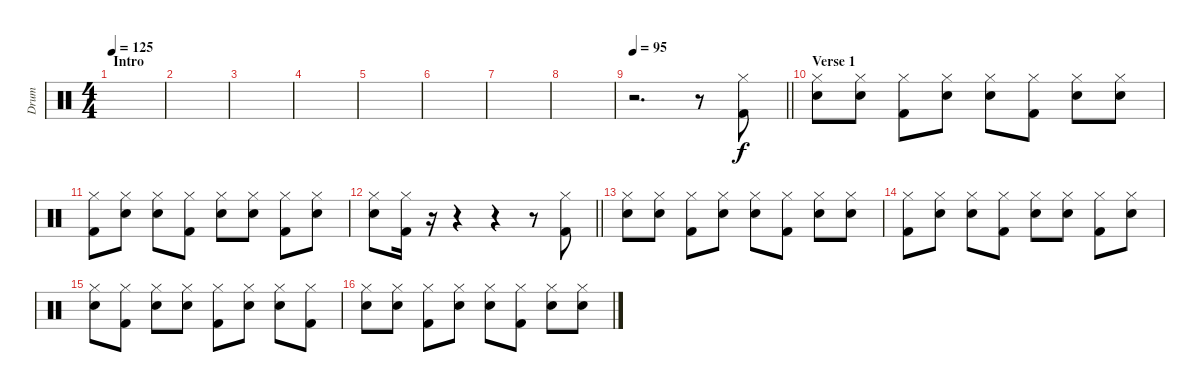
\track ("Drum" "Drum") {instrument percussion}
\staff {score}
\articulation defaults
\ts (4 4)
\section ("" "Intro")
\tempo 125
\clef neutral
\ks c
|
|
|
|
|
|
|
|
\tempo 95
\barLineRight lightlight
r.2{d} r.8 ("Hi-Hat (closed)" "Kick (hit) 2").8 |
\section ("" "Verse 1")
("Hi-Hat (closed)" "Snare (hit) 2").8 ("Hi-Hat (closed)" "Snare (hit) 2").8 ("Hi-Hat (closed)" "Kick (hit) 2").8 ("Hi-Hat (closed)" "Snare (hit) 2").8 ("Hi-Hat (closed)" "Snare (hit) 2").8 ("Hi-Hat (closed)" "Kick (hit) 2").8 ("Hi-Hat (closed)" "Snare (hit) 2").8 ("Hi-Hat (closed)" "Snare (hit) 2").8 |
("Hi-Hat (closed)" "Kick (hit) 2").8 ("Hi-Hat (closed)" "Snare (hit) 2").8 ("Hi-Hat (closed)" "Snare (hit) 2").8 ("Hi-Hat (closed)" "Kick (hit) 2").8 ("Hi-Hat (closed)" "Snare (hit) 2").8 ("Hi-Hat (closed)" "Snare (hit) 2").8 ("Hi-Hat (closed)" "Kick (hit) 2").8 ("Hi-Hat (closed)" "Snare (hit) 2").8 |
\barLineRight lightlight
("Hi-Hat (closed)" "Snare (hit) 2").8 ("Hi-Hat (closed)" "Kick (hit) 2").16 r.16 r.4 r.4 r.8 ("Hi-Hat (closed)" "Kick (hit) 2").8 |
\section ("" "")
("Hi-Hat (closed)" "Snare (hit) 2").8 ("Hi-Hat (closed)" "Snare (hit) 2").8 ("Hi-Hat (closed)" "Kick (hit) 2").8 ("Hi-Hat (closed)" "Snare (hit) 2").8 ("Hi-Hat (closed)" "Snare (hit) 2").8 ("Hi-Hat (closed)" "Kick (hit) 2").8 ("Hi-Hat (closed)" "Snare (hit) 2").8 ("Hi-Hat (closed)" "Snare (hit) 2").8 |
("Hi-Hat (closed)" "Kick (hit) 2").8 ("Hi-Hat (closed)" "Snare (hit) 2").8 ("Hi-Hat (closed)" "Snare (hit) 2").8 ("Hi-Hat (closed)" "Kick (hit) 2").8 ("Hi-Hat (closed)" "Snare (hit) 2").8 ("Hi-Hat (closed)" "Snare (hit) 2").8 ("Hi-Hat (closed)" "Kick (hit) 2").8 ("Hi-Hat (closed)" "Snare (hit) 2").8 |
("Hi-Hat (closed)" "Snare (hit) 2").8 ("Hi-Hat (closed)" "Kick (hit) 2").8 ("Hi-Hat (closed)" "Snare (hit) 2").8 ("Hi-Hat (closed)" "Snare (hit) 2").8 ("Hi-Hat (closed)" "Kick (hit) 2").8 ("Hi-Hat (closed)" "Snare (hit) 2").8 ("Hi-Hat (closed)" "Snare (hit) 2").8 ("Hi-Hat (closed)" "Kick (hit) 2").8 |
("Hi-Hat (closed)" "Snare (hit) 2").8 ("Hi-Hat (closed)" "Snare (hit) 2").8 ("Hi-Hat (closed)" "Kick (hit) 2").8 ("Hi-Hat (closed)" "Snare (hit) 2").8 ("Hi-Hat (closed)" "Snare (hit) 2").8 ("Hi-Hat (closed)" "Kick (hit) 2").8 ("Hi-Hat (closed)" "Snare (hit) 2").8 ("Hi-Hat (closed)" "Snare (hit) 2").8
